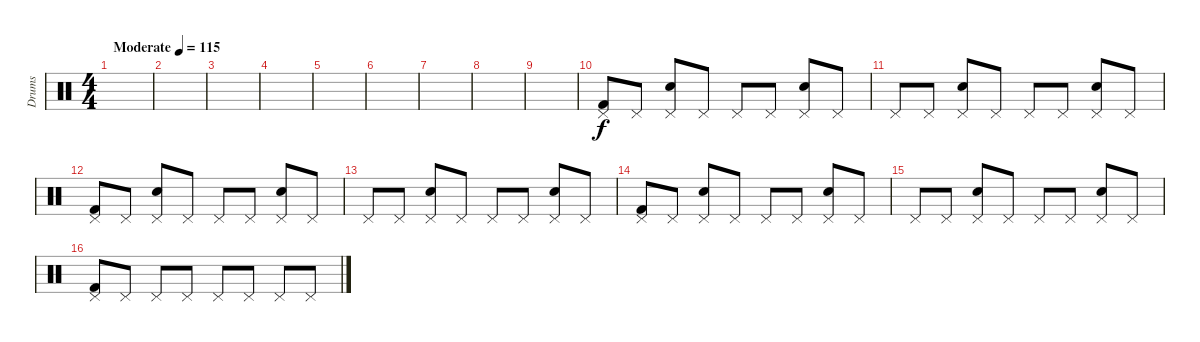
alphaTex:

\track ("Drums" "Drums") {instrument percussion}
\staff {score}
\articulation defaults
\ts (4 4)
\tempo (115 "Moderate")
\clef neutral
\ks c
|
|
|
|
|
|
|
|
|
("Pedal Hi-Hat (hit)" "Kick (hit) 2").8 "Pedal Hi-Hat (hit)".8 ("Pedal Hi-Hat (hit)" "Electric Snare (hit)").8 "Pedal Hi-Hat (hit)".8 "Pedal Hi-Hat (hit)".8 "Pedal Hi-Hat (hit)".8 ("Pedal Hi-Hat (hit)" "Electric Snare (hit)").8 "Pedal Hi-Hat (hit)".8 |
"Pedal Hi-Hat (hit)".8 "Pedal Hi-Hat (hit)".8 ("Pedal Hi-Hat (hit)" "Electric Snare (hit)").8 "Pedal Hi-Hat (hit)".8 "Pedal Hi-Hat (hit)".8 "Pedal Hi-Hat (hit)".8 ("Pedal Hi-Hat (hit)" "Electric Snare (hit)").8 "Pedal Hi-Hat (hit)".8 |
("Pedal Hi-Hat (hit)" "Kick (hit) 2").8 "Pedal Hi-Hat (hit)".8 ("Pedal Hi-Hat (hit)" "Electric Snare (hit)").8 "Pedal Hi-Hat (hit)".8 "Pedal Hi-Hat (hit)".8 "Pedal Hi-Hat (hit)".8 ("Pedal Hi-Hat (hit)" "Electric Snare (hit)").8 "Pedal Hi-Hat (hit)".8 |
"Pedal Hi-Hat (hit)".8 "Pedal Hi-Hat (hit)".8 ("Pedal Hi-Hat (hit)" "Electric Snare (hit)").8 "Pedal Hi-Hat (hit)".8 "Pedal Hi-Hat (hit)".8 "Pedal Hi-Hat (hit)".8 ("Pedal Hi-Hat (hit)" "Electric Snare (hit)").8 "Pedal Hi-Hat (hit)".8 |
("Pedal Hi-Hat (hit)" "Kick (hit) 2").8 "Pedal Hi-Hat (hit)".8 ("Pedal Hi-Hat (hit)" "Electric Snare (hit)").8 "Pedal Hi-Hat (hit)".8 "Pedal Hi-Hat (hit)".8 "Pedal Hi-Hat (hit)".8 ("Pedal Hi-Hat (hit)" "Electric Snare (hit)").8 "Pedal Hi-Hat (hit)".8 |
"Pedal Hi-Hat (hit)".8 "Pedal Hi-Hat (hit)".8 ("Pedal Hi-Hat (hit)" "Electric Snare (hit)").8 "Pedal Hi-Hat (hit)".8 "Pedal Hi-Hat (hit)".8 "Pedal Hi-Hat (hit)".8 ("Pedal Hi-Hat (hit)" "Electric Snare (hit)").8 "Pedal Hi-Hat (hit)".8 |
("Pedal Hi-Hat (hit)" "Kick (hit) 2").8 "Pedal Hi-Hat (hit)".8 "Pedal Hi-Hat (hit)".8 "Pedal Hi-Hat (hit)".8 "Pedal Hi-Hat (hit)".8 "Pedal Hi-Hat (hit)".8 "Pedal Hi-Hat (hit)".8 "Pedal Hi-Hat (hit)".8
